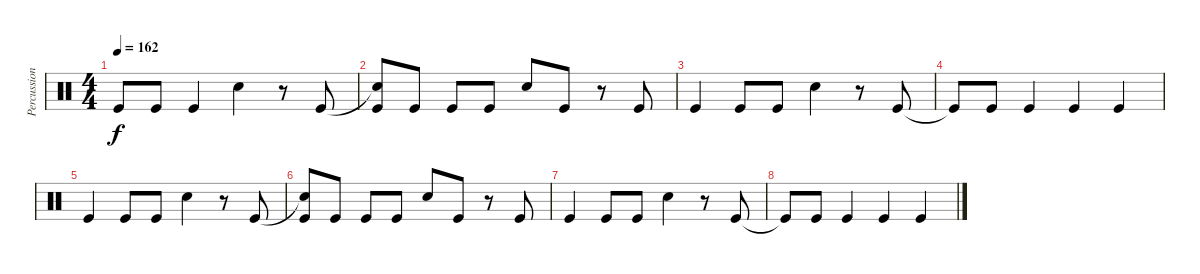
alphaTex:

\track ("Percussion" "Percussion") {instrument percussion}
\staff {score}
\articulation defaults
\ts (4 4)
\tempo 162
\clef neutral
\ks c "Kick (hit)".8{dy f} "Kick (hit)".8 "Kick (hit)".4 "Snare (hit) 2".4
r.8 "Kick (hit)".8 |
("Snare (hit)"{t} "Kick (hit)").8 "Kick (hit)".8 "Kick (hit)".8 "Kick (hit)".8 "Snare (hit) 2".8 "Kick (hit)".8 r.8 "Kick (hit)".8 |
"Kick (hit)".4 "Kick (hit)".8 "Kick (hit)".8 "Snare (hit) 2".4 r.8 "Kick (hit)".8 |
"Kick (hit)"{t}.8 "Kick (hit)".8 "Kick (hit)".4 "Kick (hit)".4 "Kick (hit)".4 |
"Kick (hit)".4 "Kick (hit)".8 "Kick (hit)".8 "Snare (hit) 2".4 r.8 "Kick (hit)".8 |
("Snare (hit)"{t} "Kick (hit)").8 "Kick (hit)".8 "Kick (hit)".8 "Kick (hit)".8 "Snare (hit) 2".8 "Kick (hit)".8 r.8 "Kick (hit)".8 |
"Kick (hit)".4 "Kick (hit)".8 "Kick (hit)".8 "Snare (hit) 2".4 r.8 "Kick (hit)".8 |
"Kick (hit)"{t}.8 "Kick (hit)".8 "Kick (hit)".4 "Kick (hit)".4 "Kick (hit)".4
